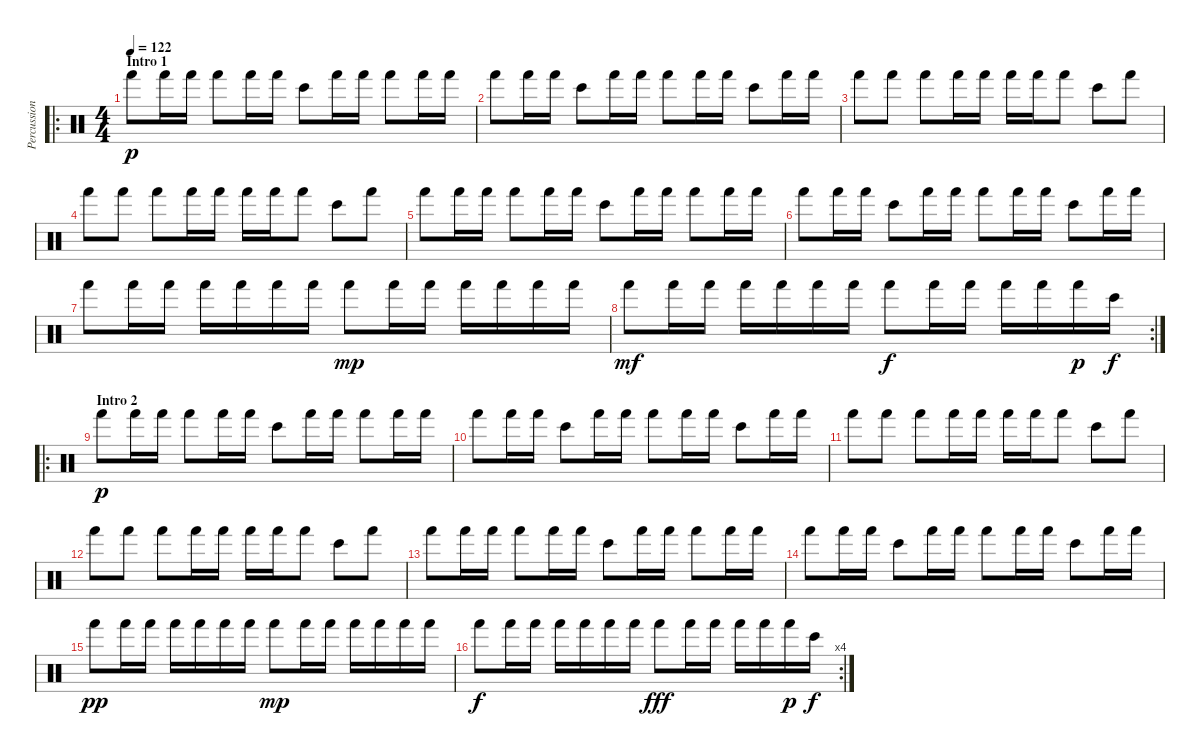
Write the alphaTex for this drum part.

\track ("Percussion" "Percussion") {instrument percussion}
\staff {score}
\articulation defaults
\ro
\ts (4 4)
\section ("" "Intro 1")
\tempo 122
\clef neutral
\ks c "Hand (hit)".8{dy p} "Hand (hit)".16 "Hand (hit)".16 "Hand (hit)".8 "Hand (hit)".16 "Hand (hit)".16 "Bongo High (hit)".8 "Hand (hit)".16 "Hand (hit)".16 "Hand (hit)".8 "Hand (hit)".16 "Hand (hit)".16
|
"Hand (hit)".8 "Hand (hit)".16 "Hand (hit)".16 "Bongo High (hit)".8 "Hand (hit)".16 "Hand (hit)".16 "Hand (hit)".8 "Hand (hit)".16 "Hand (hit)".16 "Bongo High (hit)".8 "Hand (hit)".16 "Hand (hit)".16 |
"Hand (hit)".8 "Hand (hit)".8 "Hand (hit)".8 "Hand (hit)".16 "Hand (hit)".16 "Hand (hit)".16 "Hand (hit)".16 "Hand (hit)".8 "Bongo High (hit)".8 "Hand (hit)".8 |
"Hand (hit)".8 "Hand (hit)".8 "Hand (hit)".8 "Hand (hit)".16 "Hand (hit)".16 "Hand (hit)".16 "Hand (hit)".16 "Hand (hit)".8 "Bongo High (hit)".8 "Hand (hit)".8 |
"Hand (hit)".8 "Hand (hit)".16 "Hand (hit)".16 "Hand (hit)".8 "Hand (hit)".16 "Hand (hit)".16 "Bongo High (hit)".8 "Hand (hit)".16 "Hand (hit)".16 "Hand (hit)".8 "Hand (hit)".16 "Hand (hit)".16 |
"Hand (hit)".8 "Hand (hit)".16 "Hand (hit)".16 "Bongo High (hit)".8 "Hand (hit)".16 "Hand (hit)".16 "Hand (hit)".8 "Hand (hit)".16 "Hand (hit)".16 "Bongo High (hit)".8 "Hand (hit)".16 "Hand (hit)".16 |
"Hand (hit)".8 "Hand (hit)".16 "Hand (hit)".16 "Hand (hit)".16 "Hand (hit)".16 "Hand (hit)".16 "Hand (hit)".16 "Hand (hit)".8{dy mp} "Hand (hit)".16 "Hand (hit)".16 "Hand (hit)".16 "Hand (hit)".16 "Hand (hit)".16 "Hand (hit)".16 |
\rc 2 "Hand (hit)".8{dy mf} "Hand (hit)".16 "Hand (hit)".16 "Hand (hit)".16 "Hand (hit)".16 "Hand (hit)".16 "Hand (hit)".16 "Hand (hit)".8{dy f} "Hand (hit)".16 "Hand (hit)".16 "Hand (hit)".16 "Hand (hit)".16 "Hand (hit)".16{dy p} "Bongo High (hit)".16{dy f}
|
\ro
\section ("" "Intro 2")
"Hand (hit)".8{dy p} "Hand (hit)".16 "Hand (hit)".16 "Hand (hit)".8 "Hand (hit)".16 "Hand (hit)".16 "Bongo High (hit)".8 "Hand (hit)".16 "Hand (hit)".16 "Hand (hit)".8 "Hand (hit)".16 "Hand (hit)".16 |
"Hand (hit)".8 "Hand (hit)".16 "Hand (hit)".16 "Bongo High (hit)".8 "Hand (hit)".16 "Hand (hit)".16 "Hand (hit)".8 "Hand (hit)".16 "Hand (hit)".16 "Bongo High (hit)".8 "Hand (hit)".16 "Hand (hit)".16 |
"Hand (hit)".8 "Hand (hit)".8 "Hand (hit)".8 "Hand (hit)".16 "Hand (hit)".16 "Hand (hit)".16 "Hand (hit)".16 "Hand (hit)".8 "Bongo High (hit)".8 "Hand (hit)".8 |
"Hand (hit)".8 "Hand (hit)".8 "Hand (hit)".8 "Hand (hit)".16 "Hand (hit)".16 "Hand (hit)".16 "Hand (hit)".16 "Hand (hit)".8 "Bongo High (hit)".8 "Hand (hit)".8 |
"Hand (hit)".8 "Hand (hit)".16 "Hand (hit)".16 "Hand (hit)".8 "Hand (hit)".16 "Hand (hit)".16 "Bongo High (hit)".8 "Hand (hit)".16 "Hand (hit)".16 "Hand (hit)".8 "Hand (hit)".16 "Hand (hit)".16 |
"Hand (hit)".8 "Hand (hit)".16 "Hand (hit)".16 "Bongo High (hit)".8 "Hand (hit)".16 "Hand (hit)".16 "Hand (hit)".8 "Hand (hit)".16 "Hand (hit)".16 "Bongo High (hit)".8 "Hand (hit)".16 "Hand (hit)".16 |
"Hand (hit)".8{dy pp} "Hand (hit)".16 "Hand (hit)".16 "Hand (hit)".16 "Hand (hit)".16 "Hand (hit)".16 "Hand (hit)".16 "Hand (hit)".8{dy mp} "Hand (hit)".16 "Hand (hit)".16 "Hand (hit)".16 "Hand (hit)".16 "Hand (hit)".16 "Hand (hit)".16 |
\rc 4 "Hand (hit)".8{dy f} "Hand (hit)".16 "Hand (hit)".16 "Hand (hit)".16 "Hand (hit)".16 "Hand (hit)".16 "Hand (hit)".16 "Hand (hit)".8{dy fff} "Hand (hit)".16 "Hand (hit)".16 "Hand (hit)".16 "Hand (hit)".16 "Hand (hit)".16{dy p} "Bongo High (hit)".16{dy f}
